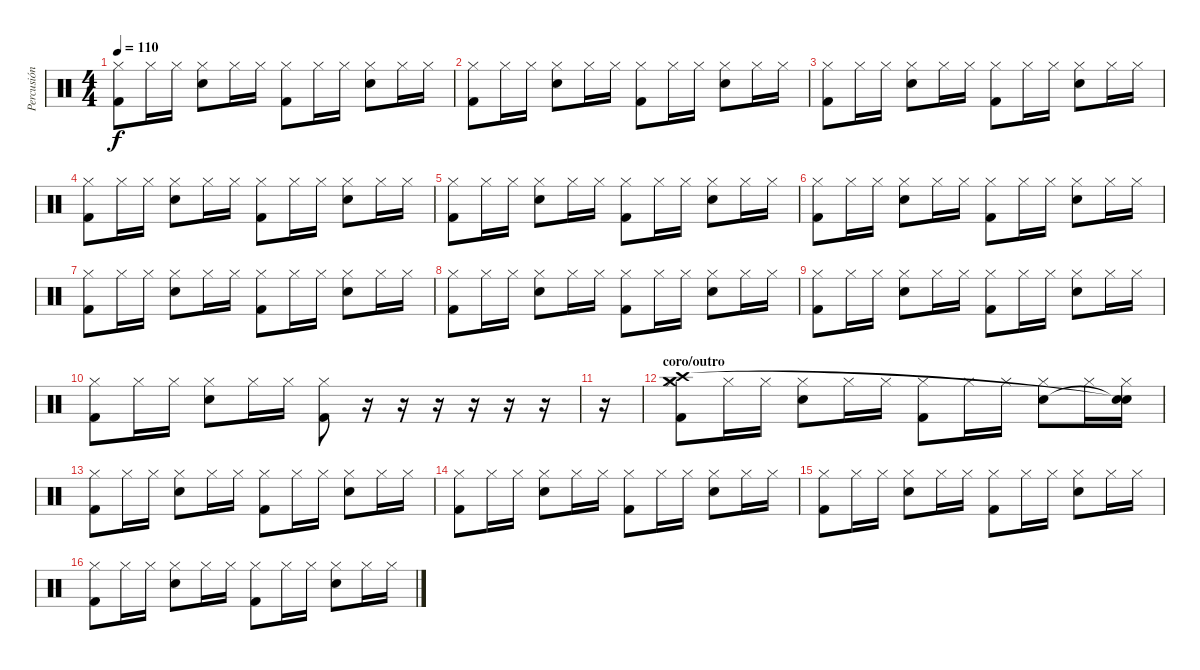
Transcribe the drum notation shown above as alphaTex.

\track ("Percusión" "Percusión") {instrument percussion}
\staff {score}
\articulation defaults
\ts (4 4)
\tempo 110
\clef neutral
\ks c
("Hi-Hat (closed)" "Kick (hit) 2").8{dy f} "Hi-Hat (closed)".16 "Hi-Hat (closed)".16 ("Hi-Hat (closed)" "Snare (hit) 2").8 "Hi-Hat (closed)".16 "Hi-Hat (closed)".16 ("Hi-Hat (closed)" "Kick (hit) 2").8 "Hi-Hat (closed)".16 "Hi-Hat (closed)".16 ("Hi-Hat (closed)" "Snare (hit) 2").8 "Hi-Hat (closed)".16 "Hi-Hat (closed)".16 |
("Hi-Hat (closed)" "Kick (hit) 2").8 "Hi-Hat (closed)".16 "Hi-Hat (closed)".16 ("Hi-Hat (closed)" "Snare (hit) 2").8 "Hi-Hat (closed)".16 "Hi-Hat (closed)".16 ("Hi-Hat (closed)" "Kick (hit) 2").8 "Hi-Hat (closed)".16 "Hi-Hat (closed)".16 ("Hi-Hat (closed)" "Snare (hit) 2").8 "Hi-Hat (closed)".16 "Hi-Hat (closed)".16 |
("Hi-Hat (closed)" "Kick (hit) 2").8 "Hi-Hat (closed)".16 "Hi-Hat (closed)".16 ("Hi-Hat (closed)" "Snare (hit) 2").8 "Hi-Hat (closed)".16 "Hi-Hat (closed)".16 ("Hi-Hat (closed)" "Kick (hit) 2").8 "Hi-Hat (closed)".16 "Hi-Hat (closed)".16 ("Hi-Hat (closed)" "Snare (hit) 2").8 "Hi-Hat (closed)".16 "Hi-Hat (closed)".16 |
("Hi-Hat (closed)" "Kick (hit) 2").8 "Hi-Hat (closed)".16 "Hi-Hat (closed)".16 ("Hi-Hat (closed)" "Snare (hit) 2").8 "Hi-Hat (closed)".16 "Hi-Hat (closed)".16 ("Hi-Hat (closed)" "Kick (hit) 2").8 "Hi-Hat (closed)".16 "Hi-Hat (closed)".16 ("Hi-Hat (closed)" "Snare (hit) 2").8 "Hi-Hat (closed)".16 "Hi-Hat (closed)".16 |
("Hi-Hat (closed)" "Kick (hit) 2").8 "Hi-Hat (closed)".16 "Hi-Hat (closed)".16 ("Hi-Hat (closed)" "Snare (hit) 2").8 "Hi-Hat (closed)".16 "Hi-Hat (closed)".16 ("Hi-Hat (closed)" "Kick (hit) 2").8 "Hi-Hat (closed)".16 "Hi-Hat (closed)".16 ("Hi-Hat (closed)" "Snare (hit) 2").8 "Hi-Hat (closed)".16 "Hi-Hat (closed)".16 |
("Hi-Hat (closed)" "Kick (hit) 2").8 "Hi-Hat (closed)".16 "Hi-Hat (closed)".16 ("Hi-Hat (closed)" "Snare (hit) 2").8 "Hi-Hat (closed)".16 "Hi-Hat (closed)".16 ("Hi-Hat (closed)" "Kick (hit) 2").8 "Hi-Hat (closed)".16 "Hi-Hat (closed)".16 ("Hi-Hat (closed)" "Snare (hit) 2").8 "Hi-Hat (closed)".16 "Hi-Hat (closed)".16 |
("Hi-Hat (closed)" "Kick (hit) 2").8 "Hi-Hat (closed)".16 "Hi-Hat (closed)".16 ("Hi-Hat (closed)" "Snare (hit) 2").8 "Hi-Hat (closed)".16 "Hi-Hat (closed)".16 ("Hi-Hat (closed)" "Kick (hit) 2").8 "Hi-Hat (closed)".16 "Hi-Hat (closed)".16 ("Hi-Hat (closed)" "Snare (hit) 2").8 "Hi-Hat (closed)".16 "Hi-Hat (closed)".16 |
("Hi-Hat (closed)" "Kick (hit) 2").8 "Hi-Hat (closed)".16 "Hi-Hat (closed)".16 ("Hi-Hat (closed)" "Snare (hit) 2").8 "Hi-Hat (closed)".16 "Hi-Hat (closed)".16 ("Hi-Hat (closed)" "Kick (hit) 2").8 "Hi-Hat (closed)".16 "Hi-Hat (closed)".16 ("Hi-Hat (closed)" "Snare (hit) 2").8 "Hi-Hat (closed)".16 "Hi-Hat (closed)".16 |
("Hi-Hat (closed)" "Kick (hit) 2").8 "Hi-Hat (closed)".16 "Hi-Hat (closed)".16 ("Hi-Hat (closed)" "Snare (hit) 2").8 "Hi-Hat (closed)".16 "Hi-Hat (closed)".16 ("Hi-Hat (closed)" "Kick (hit) 2").8 "Hi-Hat (closed)".16 "Hi-Hat (closed)".16 ("Hi-Hat (closed)" "Snare (hit) 2").8 "Hi-Hat (closed)".16 "Hi-Hat (closed)".16 |
("Hi-Hat (closed)" "Kick (hit) 2").8 "Hi-Hat (closed)".16 "Hi-Hat (closed)".16 ("Hi-Hat (closed)" "Snare (hit) 2").8 "Hi-Hat (closed)".16 "Hi-Hat (closed)".16 ("Hi-Hat (closed)" "Kick (hit) 2").8 r.16 r.16 r.16 r.16 r.16 r.16 |
r.16 |
\section ("" "coro/outro")
("Hi-Hat (closed)" "Kick (hit) 2" "Crash high (hit)" "Crash medium (hit)").8 "Hi-Hat (closed)".16 "Hi-Hat (closed)".16 ("Hi-Hat (closed)" "Snare (hit) 2").8 "Hi-Hat (closed)".16 "Hi-Hat (closed)".16 ("Hi-Hat (closed)" "Kick (hit) 2").8 "Hi-Hat (closed)".16 "Hi-Hat (closed)".16 ("Hi-Hat (closed)" "Snare (hit) 2").8 "Hi-Hat (closed)".16 ("Hi-Hat (closed)" "Snare (hit)"{t} "Snare (hit)"{t}).16 |
("Hi-Hat (closed)" "Kick (hit) 2").8 "Hi-Hat (closed)".16 "Hi-Hat (closed)".16 ("Hi-Hat (closed)" "Snare (hit) 2").8 "Hi-Hat (closed)".16 "Hi-Hat (closed)".16 ("Hi-Hat (closed)" "Kick (hit) 2").8 "Hi-Hat (closed)".16 "Hi-Hat (closed)".16 ("Hi-Hat (closed)" "Snare (hit) 2").8 "Hi-Hat (closed)".16 "Hi-Hat (closed)".16 |
("Hi-Hat (closed)" "Kick (hit) 2").8 "Hi-Hat (closed)".16 "Hi-Hat (closed)".16 ("Hi-Hat (closed)" "Snare (hit) 2").8 "Hi-Hat (closed)".16 "Hi-Hat (closed)".16 ("Hi-Hat (closed)" "Kick (hit) 2").8 "Hi-Hat (closed)".16 "Hi-Hat (closed)".16 ("Hi-Hat (closed)" "Snare (hit) 2").8 "Hi-Hat (closed)".16 "Hi-Hat (closed)".16 |
("Hi-Hat (closed)" "Kick (hit) 2").8 "Hi-Hat (closed)".16 "Hi-Hat (closed)".16 ("Hi-Hat (closed)" "Snare (hit) 2").8 "Hi-Hat (closed)".16 "Hi-Hat (closed)".16 ("Hi-Hat (closed)" "Kick (hit) 2").8 "Hi-Hat (closed)".16 "Hi-Hat (closed)".16 ("Hi-Hat (closed)" "Snare (hit) 2").8 "Hi-Hat (closed)".16 "Hi-Hat (closed)".16 |
("Hi-Hat (closed)" "Kick (hit) 2").8 "Hi-Hat (closed)".16 "Hi-Hat (closed)".16 ("Hi-Hat (closed)" "Snare (hit) 2").8 "Hi-Hat (closed)".16 "Hi-Hat (closed)".16 ("Hi-Hat (closed)" "Kick (hit) 2").8 "Hi-Hat (closed)".16 "Hi-Hat (closed)".16 ("Hi-Hat (closed)" "Snare (hit) 2").8 "Hi-Hat (closed)".16 "Hi-Hat (closed)".16
